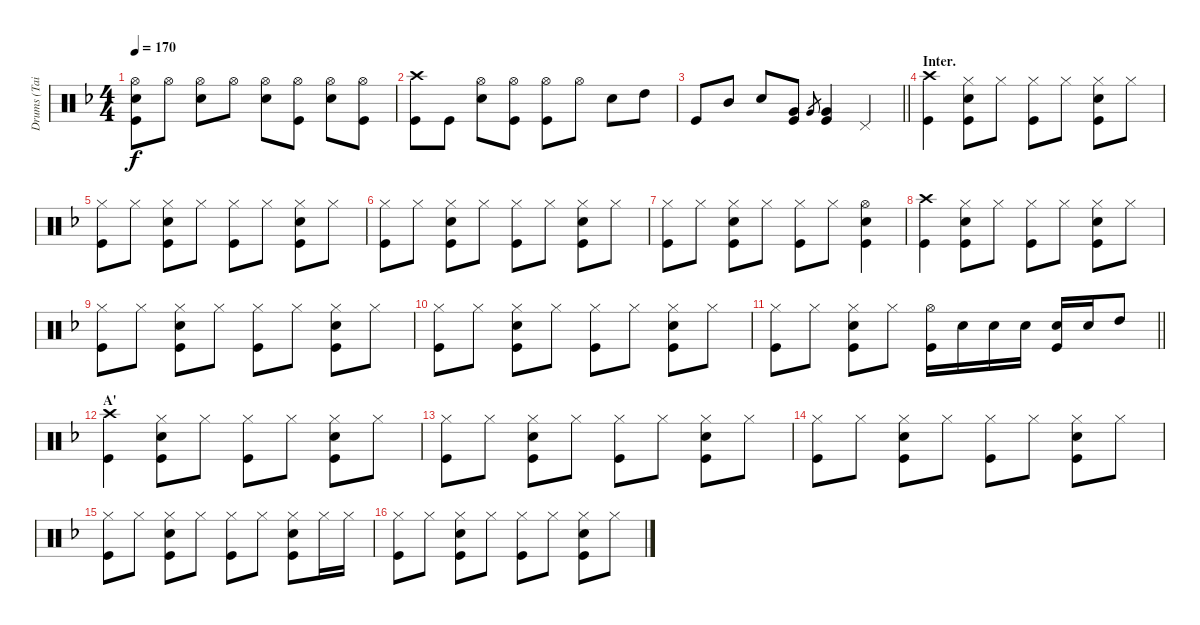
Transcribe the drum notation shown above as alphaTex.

\track ("Drums (Tainaka Ritsu)" "Drums (Tai") {instrument percussion}
\staff {score}
\articulation defaults
\ts (4 4)
\tempo 170
\clef neutral
\ks f
("Hi-Hat (open)" "Snare (hit) 2" "Kick (hit)").8{dy f} "Hi-Hat (open)".8 ("Hi-Hat (open)" "Snare (hit) 2").8 "Hi-Hat (open)".8 ("Hi-Hat (open)" "Snare (hit) 2").8 ("Hi-Hat (open)" "Kick (hit)").8 ("Hi-Hat (open)" "Snare (hit) 2").8 ("Hi-Hat (open)" "Kick (hit)").8 |
("Crash high (hit)" "Kick (hit)").8 "Kick (hit)".8 ("Hi-Hat (open)" "Snare (hit) 2").8 ("Hi-Hat (open)" "Kick (hit)").8 ("Hi-Hat (open)" "Kick (hit)").8 "Hi-Hat (open)".8 "Snare (hit) 2".8 "High Tom (hit)".8 |
\barLineRight lightlight "Kick (hit)".8 "Mid Tom (hit)".8 "Snare (hit) 2".8
("Very Low Tom (hit)" "Kick (hit)").8 "Very Low Tom (hit)".8{gr} ("Very Low Tom (hit)" "Kick (hit)").4 "Pedal Hi-Hat (hit)".4 |
\section ("" "Inter.")
("Crash high (hit)" "Kick (hit)").4 ("Hi-Hat (closed)" "Snare (hit) 2" "Kick (hit)").8 "Hi-Hat (closed)".8 ("Hi-Hat (closed)" "Kick (hit)").8 "Hi-Hat (closed)".8 ("Hi-Hat (closed)" "Snare (hit) 2" "Kick (hit)").8 "Hi-Hat (closed)".8 |
("Hi-Hat (closed)" "Kick (hit)").8 "Hi-Hat (closed)".8 ("Hi-Hat (closed)" "Snare (hit) 2" "Kick (hit)").8 "Hi-Hat (closed)".8 ("Hi-Hat (closed)" "Kick (hit)").8 "Hi-Hat (closed)".8 ("Hi-Hat (closed)" "Snare (hit) 2" "Kick (hit)").8 "Hi-Hat (closed)".8 |
("Hi-Hat (closed)" "Kick (hit)").8 "Hi-Hat (closed)".8 ("Hi-Hat (closed)" "Snare (hit) 2" "Kick (hit)").8 "Hi-Hat (closed)".8 ("Hi-Hat (closed)" "Kick (hit)").8 "Hi-Hat (closed)".8 ("Hi-Hat (closed)" "Snare (hit) 2" "Kick (hit)").8 "Hi-Hat (closed)".8 |
("Hi-Hat (closed)" "Kick (hit)").8 "Hi-Hat (closed)".8 ("Hi-Hat (closed)" "Snare (hit) 2" "Kick (hit)").8 "Hi-Hat (closed)".8 ("Hi-Hat (closed)" "Kick (hit)").8 "Hi-Hat (closed)".8 ("Hi-Hat (open)" "Snare (hit) 2" "Kick (hit)").4 |
("Crash high (hit)" "Kick (hit)").4 ("Hi-Hat (closed)" "Snare (hit) 2" "Kick (hit)").8 "Hi-Hat (closed)".8 ("Hi-Hat (closed)" "Kick (hit)").8 "Hi-Hat (closed)".8 ("Hi-Hat (closed)" "Snare (hit) 2" "Kick (hit)").8 "Hi-Hat (closed)".8 |
("Hi-Hat (closed)" "Kick (hit)").8 "Hi-Hat (closed)".8 ("Hi-Hat (closed)" "Snare (hit) 2" "Kick (hit)").8 "Hi-Hat (closed)".8 ("Hi-Hat (closed)" "Kick (hit)").8 "Hi-Hat (closed)".8 ("Hi-Hat (closed)" "Snare (hit) 2" "Kick (hit)").8 "Hi-Hat (closed)".8 |
("Hi-Hat (closed)" "Kick (hit)").8 "Hi-Hat (closed)".8 ("Hi-Hat (closed)" "Snare (hit) 2" "Kick (hit)").8 "Hi-Hat (closed)".8 ("Hi-Hat (closed)" "Kick (hit)").8 "Hi-Hat (closed)".8 ("Hi-Hat (closed)" "Snare (hit) 2" "Kick (hit)").8 "Hi-Hat (closed)".8 |
\barLineRight lightlight
("Hi-Hat (closed)" "Kick (hit)").8 "Hi-Hat (closed)".8 ("Hi-Hat (closed)" "Snare (hit) 2" "Kick (hit)").8 "Hi-Hat (closed)".8 ("Hi-Hat (open)" "Kick (hit)").16 "Snare (hit) 2".16 "Snare (hit) 2".16 "Snare (hit) 2".16 ("Snare (hit) 2" "Kick (hit)").16 "Snare (hit) 2".16 "High Tom (hit)".8 |
\section ("" "A'")
("Crash high (hit)" "Kick (hit)").4 ("Hi-Hat (closed)" "Snare (hit) 2" "Kick (hit)").8 "Hi-Hat (closed)".8 ("Hi-Hat (closed)" "Kick (hit)").8 "Hi-Hat (closed)".8 ("Hi-Hat (closed)" "Snare (hit) 2" "Kick (hit)").8 "Hi-Hat (closed)".8 |
("Hi-Hat (closed)" "Kick (hit)").8 "Hi-Hat (closed)".8 ("Hi-Hat (closed)" "Snare (hit) 2" "Kick (hit)").8 "Hi-Hat (closed)".8 ("Hi-Hat (closed)" "Kick (hit)").8 "Hi-Hat (closed)".8 ("Hi-Hat (closed)" "Snare (hit) 2" "Kick (hit)").8 "Hi-Hat (closed)".8 |
("Hi-Hat (closed)" "Kick (hit)").8 "Hi-Hat (closed)".8 ("Hi-Hat (closed)" "Snare (hit) 2" "Kick (hit)").8 "Hi-Hat (closed)".8 ("Hi-Hat (closed)" "Kick (hit)").8 "Hi-Hat (closed)".8 ("Hi-Hat (closed)" "Snare (hit) 2" "Kick (hit)").8 "Hi-Hat (closed)".8 |
("Hi-Hat (closed)" "Kick (hit)").8 "Hi-Hat (closed)".8 ("Hi-Hat (closed)" "Snare (hit) 2" "Kick (hit)").8 "Hi-Hat (closed)".8 ("Hi-Hat (closed)" "Kick (hit)").8 "Hi-Hat (closed)".8 ("Hi-Hat (closed)" "Snare (hit) 2" "Kick (hit)").8 "Hi-Hat (closed)".16 "Hi-Hat (closed)".16 |
("Hi-Hat (closed)" "Kick (hit)").8 "Hi-Hat (closed)".8 ("Hi-Hat (closed)" "Snare (hit) 2" "Kick (hit)").8 "Hi-Hat (closed)".8 ("Hi-Hat (closed)" "Kick (hit)").8 "Hi-Hat (closed)".8 ("Hi-Hat (closed)" "Snare (hit) 2" "Kick (hit)").8 "Hi-Hat (closed)".8
